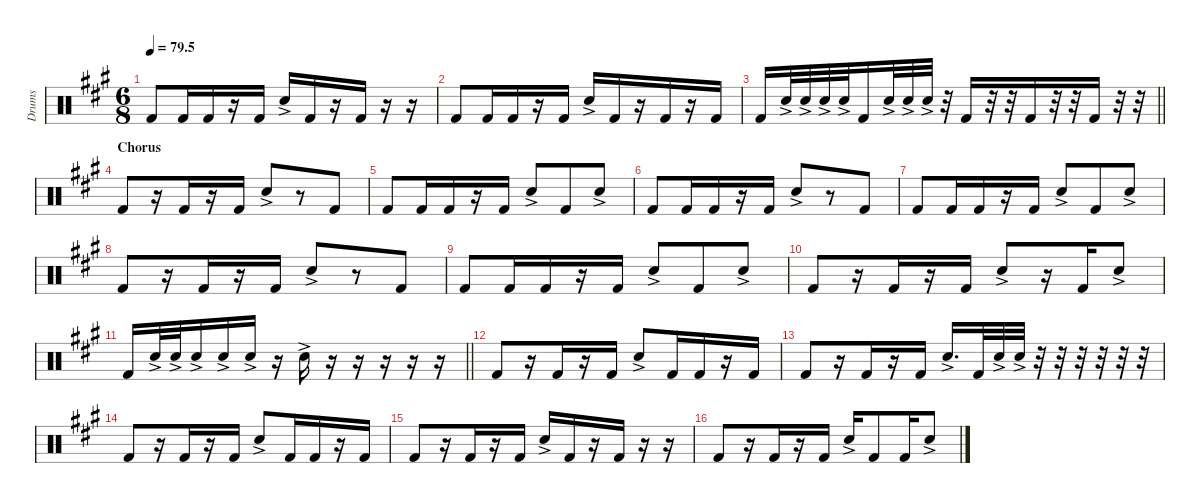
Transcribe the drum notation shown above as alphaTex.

\defaultSystemsLayout 4
\hideDynamics
\bracketExtendMode nobrackets
\otherSystemsTrackNameOrientation horizontal
\track ("F&S" "Drums") {instrument percussion}
\staff {score}
\articulation defaults
\ts (6 8)
\tempo
79.5
\accidentals auto
\clef neutral
\ottava regular
\simile none
\scale
0.333333
\ks a "Kick (hit) 2"{acc forcenatural}.8{dy f} "Kick (hit) 2"{acc forcenatural}.16 "Kick (hit) 2"{acc forcenatural}.16
r.16 "Kick (hit) 2"{acc forcenatural}.16 "Snare (hit) 2"{ac acc forcenatural}.16 "Kick (hit) 2"{acc forcenatural}.16 r.16 "Kick (hit) 2"{acc forcenatural}.16 r.16 r.16 |
\scale
0.333333 "Kick (hit) 2"{acc forcenatural}.8 "Kick (hit) 2"{acc forcenatural}.16 "Kick (hit) 2"{acc forcenatural}.16 r.16 "Kick (hit) 2"{acc forcenatural}.16 "Snare (hit) 2"{ac acc forcenatural}.16 "Kick (hit) 2"{acc forcenatural}.16 r.16 "Kick (hit) 2"{acc forcenatural}.16 r.16 "Kick (hit) 2"{acc forcenatural}.16 |
\scale
0.333333
\barLineRight lightlight "Kick (hit) 2"{acc forcenatural}.16 "Snare (hit) 2"{ac acc forcenatural}.32 "Snare (hit) 2"{ac acc forcenatural}.32 "Snare (hit) 2"{ac acc forcenatural}.32 "Snare (hit) 2"{ac acc forcenatural}.32 "Kick (hit) 2"{acc forcenatural}.16 "Snare (hit) 2"{ac acc forcenatural}.32 "Snare (hit) 2"{ac acc forcenatural}.32 "Snare (hit) 2"{ac acc forcenatural}.32
r.32 "Kick (hit) 2"{acc forcenatural}.16 r.32 r.32 "Kick (hit) 2"{acc forcenatural}.16 r.32 r.32 "Kick (hit) 2"{acc forcenatural}.16 r.32 r.32 |
\section ("" "Chorus")
\scale
0.333333 "Kick (hit) 2"{acc forcenatural}.8 r.16 "Kick (hit) 2"{acc forcenatural}.16 r.16 "Kick (hit) 2"{acc forcenatural}.16 "Snare (hit) 2"{ac acc forcenatural}.8 r.8 "Kick (hit) 2"{acc forcenatural}.8 |
\scale
0.333333 "Kick (hit) 2"{acc forcenatural}.8 "Kick (hit) 2"{acc forcenatural}.16 "Kick (hit) 2"{acc forcenatural}.16 r.16 "Kick (hit) 2"{acc forcenatural}.16 "Snare (hit) 2"{ac acc forcenatural}.8 "Kick (hit) 2"{acc forcenatural}.8 "Snare (hit) 2"{ac acc forcenatural}.8 |
\scale
0.333333 "Kick (hit) 2"{acc forcenatural}.8 "Kick (hit) 2"{acc forcenatural}.16 "Kick (hit) 2"{acc forcenatural}.16 r.16 "Kick (hit) 2"{acc forcenatural}.16 "Snare (hit) 2"{ac acc forcenatural}.8 r.8 "Kick (hit) 2"{acc forcenatural}.8 |
\scale
0.333333 "Kick (hit) 2"{acc forcenatural}.8 "Kick (hit) 2"{acc forcenatural}.16 "Kick (hit) 2"{acc forcenatural}.16 r.16 "Kick (hit) 2"{acc forcenatural}.16 "Snare (hit) 2"{ac acc forcenatural}.8 "Kick (hit) 2"{acc forcenatural}.8 "Snare (hit) 2"{ac acc forcenatural}.8 |
\scale
0.333333 "Kick (hit) 2"{acc forcenatural}.8 r.16 "Kick (hit) 2"{acc forcenatural}.16 r.16 "Kick (hit) 2"{acc forcenatural}.16 "Snare (hit) 2"{ac acc forcenatural}.8 r.8 "Kick (hit) 2"{acc forcenatural}.8 |
\scale
0.333333 "Kick (hit) 2"{acc forcenatural}.8 "Kick (hit) 2"{acc forcenatural}.16 "Kick (hit) 2"{acc forcenatural}.16 r.16 "Kick (hit) 2"{acc forcenatural}.16 "Snare (hit) 2"{ac acc forcenatural}.8 "Kick (hit) 2"{acc forcenatural}.8 "Snare (hit) 2"{ac acc forcenatural}.8 |
\scale
0.333333 "Kick (hit) 2"{acc forcenatural}.8 r.16 "Kick (hit) 2"{acc forcenatural}.16 r.16 "Kick (hit) 2"{acc forcenatural}.16 "Snare (hit) 2"{ac acc forcenatural}.8 r.16 "Kick (hit) 2"{acc forcenatural}.16 "Snare (hit) 2"{ac acc forcenatural}.8 |
\scale
0.333333
\barLineRight lightlight "Kick (hit) 2"{acc forcenatural}.16 "Snare (hit) 2"{ac acc forcenatural}.32 "Snare (hit) 2"{ac acc forcenatural}.32 "Snare (hit) 2"{ac acc forcenatural}.16 "Snare (hit) 2"{ac acc forcenatural}.16 "Snare (hit) 2"{ac acc forcenatural}.16
r.16 "Snare (hit) 2"{ac acc forcenatural}.16 r.16 r.16 r.16 r.16 r.16 |
\scale
0.333333 "Kick (hit) 2"{acc forcenatural}.8 r.16 "Kick (hit) 2"{acc forcenatural}.16 r.16 "Kick (hit) 2"{acc forcenatural}.16 "Snare (hit) 2"{ac acc forcenatural}.8 "Kick (hit) 2"{acc forcenatural}.16 "Kick (hit) 2"{acc forcenatural}.16 r.16 "Kick (hit) 2"{acc forcenatural}.16 |
\scale
0.333333 "Kick (hit) 2"{acc forcenatural}.8 r.16 "Kick (hit) 2"{acc forcenatural}.16 r.16 "Kick (hit) 2"{acc forcenatural}.16 "Snare (hit) 2"{ac acc forcenatural}.16{d} "Kick (hit) 2"{acc forcenatural}.32 "Snare (hit) 2"{ac acc forcenatural}.32 "Snare (hit) 2"{ac acc forcenatural}.32 r.32 r.32 r.32 r.32 r.32 r.32 |
\scale
0.333333 "Kick (hit) 2"{acc forcenatural}.8 r.16 "Kick (hit) 2"{acc forcenatural}.16 r.16 "Kick (hit) 2"{acc forcenatural}.16 "Snare (hit) 2"{ac acc forcenatural}.8 "Kick (hit) 2"{acc forcenatural}.16 "Kick (hit) 2"{acc forcenatural}.16 r.16 "Kick (hit) 2"{acc forcenatural}.16 |
\scale
0.333333 "Kick (hit) 2"{acc forcenatural}.8 r.16 "Kick (hit) 2"{acc forcenatural}.16 r.16 "Kick (hit) 2"{acc forcenatural}.16 "Snare (hit) 2"{ac acc forcenatural}.16 "Kick (hit) 2"{acc forcenatural}.16 r.16 "Kick (hit) 2"{acc forcenatural}.16 r.16 r.16 |
\scale
0.333333 "Kick (hit) 2"{acc forcenatural}.8 r.16 "Kick (hit) 2"{acc forcenatural}.16 r.16 "Kick (hit) 2"{acc forcenatural}.16 "Snare (hit) 2"{ac acc forcenatural}.16 "Kick (hit) 2"{acc forcenatural}.8 "Kick (hit) 2"{acc forcenatural}.16 "Snare (hit) 2"{ac acc forcenatural}.8
